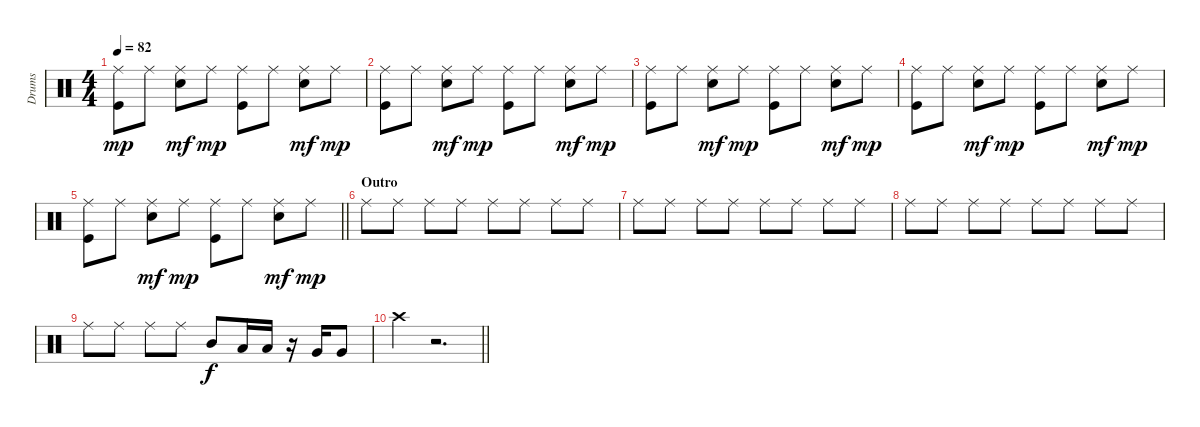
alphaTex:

\track ("Drums" "Drums") {instrument percussion}
\staff {score}
\articulation defaults
\ts (4 4)
\tempo 82
\clef neutral
\ks c
("Ride (middle)" "Kick (hit)").8{dy mp} "Ride (middle)".8 ("Ride (middle)" "Snare (hit) 2").8{dy mf} "Ride (middle)".8{dy mp} ("Ride (middle)" "Kick (hit)").8 "Ride (middle)".8 ("Ride (middle)" "Snare (hit) 2").8{dy mf} "Ride (middle)".8{dy mp} |
("Ride (middle)" "Kick (hit)").8 "Ride (middle)".8 ("Ride (middle)" "Snare (hit) 2").8{dy mf} "Ride (middle)".8{dy mp} ("Ride (middle)" "Kick (hit)").8 "Ride (middle)".8 ("Ride (middle)" "Snare (hit) 2").8{dy mf} "Ride (middle)".8{dy mp} |
("Ride (middle)" "Kick (hit)").8 "Ride (middle)".8 ("Ride (middle)" "Snare (hit) 2").8{dy mf} "Ride (middle)".8{dy mp} ("Ride (middle)" "Kick (hit)").8 "Ride (middle)".8 ("Ride (middle)" "Snare (hit) 2").8{dy mf} "Ride (middle)".8{dy mp} |
("Ride (middle)" "Kick (hit)").8 "Ride (middle)".8 ("Ride (middle)" "Snare (hit) 2").8{dy mf} "Ride (middle)".8{dy mp} ("Ride (middle)" "Kick (hit)").8 "Ride (middle)".8 ("Ride (middle)" "Snare (hit) 2").8{dy mf} "Ride (middle)".8{dy mp} |
\barLineRight lightlight
("Ride (middle)" "Kick (hit)").8 "Ride (middle)".8 ("Ride (middle)" "Snare (hit) 2").8{dy mf} "Ride (middle)".8{dy mp} ("Ride (middle)" "Kick (hit)").8 "Ride (middle)".8 ("Ride (middle)" "Snare (hit) 2").8{dy mf} "Ride (middle)".8{dy mp} |
\section ("" "Outro")
"Ride (middle)".8 "Ride (middle)".8 "Ride (middle)".8 "Ride (middle)".8 "Ride (middle)".8 "Ride (middle)".8 "Ride (middle)".8 "Ride (middle)".8 |
"Ride (middle)".8 "Ride (middle)".8 "Ride (middle)".8 "Ride (middle)".8 "Ride (middle)".8 "Ride (middle)".8 "Ride (middle)".8 "Ride (middle)".8 |
"Ride (middle)".8 "Ride (middle)".8 "Ride (middle)".8 "Ride (middle)".8 "Ride (middle)".8 "Ride (middle)".8 "Ride (middle)".8 "Ride (middle)".8 |
"Ride (middle)".8 "Ride (middle)".8 "Ride (middle)".8 "Ride (middle)".8 "Mid Tom (hit)".8{dy f} "Low Tom (hit)".16 "Low Tom (hit)".16 r.16 "Very Low Tom (hit)".16 "Very Low Tom (hit)".8 |
\barLineRight lightlight "Crash high (hit)".4
r.2{d}
